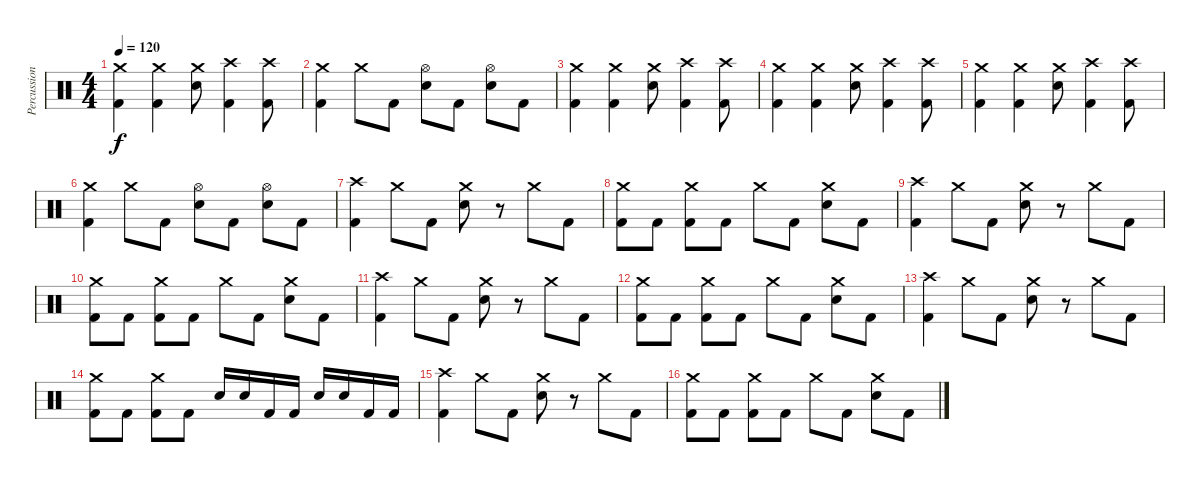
\track ("Percussion" "Percussion") {instrument percussion}
\staff {score}
\articulation defaults
\ts (4 4)
\tempo 120
\clef neutral
\ks c
("Crash medium (hit)" "Kick (hit) 2").4{dy f} ("Crash medium (hit)" "Kick (hit) 2").4 ("Crash medium (hit)" "Electric Snare (hit)").8 ("Crash high (hit)" "Kick (hit) 2").4 ("Crash high (hit)" "Kick (hit) 2").8 |
("Crash medium (hit)" "Kick (hit) 2").4 "Crash medium (hit)".8 "Kick (hit) 2".8 ("Hi-Hat (open)" "Electric Snare (hit)").8 "Kick (hit) 2".8 ("Hi-Hat (open)" "Electric Snare (hit)").8 "Kick (hit) 2".8 |
("Crash medium (hit)" "Kick (hit) 2").4 ("Crash medium (hit)" "Kick (hit) 2").4 ("Crash medium (hit)" "Electric Snare (hit)").8 ("Crash high (hit)" "Kick (hit) 2").4 ("Crash high (hit)" "Kick (hit) 2").8 |
("Crash medium (hit)" "Kick (hit) 2").4 ("Crash medium (hit)" "Kick (hit) 2").4 ("Crash medium (hit)" "Electric Snare (hit)").8 ("Crash high (hit)" "Kick (hit) 2").4 ("Crash high (hit)" "Kick (hit) 2").8 |
("Crash medium (hit)" "Kick (hit) 2").4 ("Crash medium (hit)" "Kick (hit) 2").4 ("Crash medium (hit)" "Electric Snare (hit)").8 ("Crash high (hit)" "Kick (hit) 2").4 ("Crash high (hit)" "Kick (hit) 2").8 |
("Crash medium (hit)" "Kick (hit) 2").4 "Crash medium (hit)".8 "Kick (hit) 2".8 ("Hi-Hat (open)" "Electric Snare (hit)").8 "Kick (hit) 2".8 ("Hi-Hat (open)" "Electric Snare (hit)").8 "Kick (hit) 2".8 |
("Crash high (hit)" "Kick (hit) 2").4 "Crash medium (hit)".8 "Kick (hit) 2".8 ("Crash medium (hit)" "Electric Snare (hit)").8 r.8 "Crash medium (hit)".8 "Kick (hit) 2".8 |
("Crash medium (hit)" "Kick (hit) 2").8 "Kick (hit) 2".8 ("Crash medium (hit)" "Kick (hit) 2").8 "Kick (hit) 2".8 "Crash medium (hit)".8 "Kick (hit) 2".8 ("Crash medium (hit)" "Electric Snare (hit)").8 "Kick (hit) 2".8 |
("Crash high (hit)" "Kick (hit) 2").4 "Crash medium (hit)".8 "Kick (hit) 2".8 ("Crash medium (hit)" "Electric Snare (hit)").8 r.8 "Crash medium (hit)".8 "Kick (hit) 2".8 |
("Crash medium (hit)" "Kick (hit) 2").8 "Kick (hit) 2".8 ("Crash medium (hit)" "Kick (hit) 2").8 "Kick (hit) 2".8 "Crash medium (hit)".8 "Kick (hit) 2".8 ("Crash medium (hit)" "Electric Snare (hit)").8 "Kick (hit) 2".8 |
("Crash high (hit)" "Kick (hit) 2").4 "Crash medium (hit)".8 "Kick (hit) 2".8 ("Crash medium (hit)" "Electric Snare (hit)").8 r.8 "Crash medium (hit)".8 "Kick (hit) 2".8 |
("Crash medium (hit)" "Kick (hit) 2").8 "Kick (hit) 2".8 ("Crash medium (hit)" "Kick (hit) 2").8 "Kick (hit) 2".8 "Crash medium (hit)".8 "Kick (hit) 2".8 ("Crash medium (hit)" "Electric Snare (hit)").8 "Kick (hit) 2".8 |
("Crash high (hit)" "Kick (hit) 2").4 "Crash medium (hit)".8 "Kick (hit) 2".8 ("Crash medium (hit)" "Electric Snare (hit)").8 r.8 "Crash medium (hit)".8 "Kick (hit) 2".8 |
("Crash medium (hit)" "Kick (hit) 2").8 "Kick (hit) 2".8 ("Crash medium (hit)" "Kick (hit) 2").8 "Kick (hit) 2".8 "Electric Snare (hit)".16 "Electric Snare (hit)".16 "Kick (hit) 2".16 "Kick (hit) 2".16 "Electric Snare (hit)".16 "Electric Snare (hit)".16 "Kick (hit) 2".16 "Kick (hit) 2".16 |
("Crash high (hit)" "Kick (hit) 2").4 "Crash medium (hit)".8 "Kick (hit) 2".8 ("Crash medium (hit)" "Electric Snare (hit)").8 r.8 "Crash medium (hit)".8 "Kick (hit) 2".8 |
("Crash medium (hit)" "Kick (hit) 2").8 "Kick (hit) 2".8 ("Crash medium (hit)" "Kick (hit) 2").8 "Kick (hit) 2".8 "Crash medium (hit)".8 "Kick (hit) 2".8 ("Crash medium (hit)" "Electric Snare (hit)").8 "Kick (hit) 2".8
